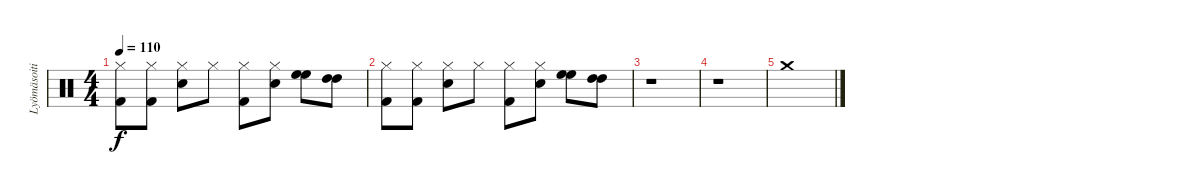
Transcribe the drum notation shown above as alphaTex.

\track ("Lyömäsoitin" "Lyömäsoiti") {instrument percussion}
\staff {score}
\articulation defaults
\ts (4 4)
\tempo 110
\clef neutral
\ks c
("Hi-Hat (closed)" "Kick (hit) 2").8{dy f} ("Hi-Hat (closed)" "Kick (hit) 2").8 ("Hi-Hat (closed)" "Snare (hit) 2").8 "Hi-Hat (closed)".8 ("Hi-Hat (closed)" "Kick (hit) 2").8 ("Hi-Hat (closed)" "Snare (hit) 2").8 ("High Floor Tom (hit)" "High Floor Tom (hit)").8 ("High Tom (hit)" "High Tom (hit)").8 |
("Hi-Hat (closed)" "Kick (hit) 2").8 ("Hi-Hat (closed)" "Kick (hit) 2").8 ("Hi-Hat (closed)" "Snare (hit) 2").8 "Hi-Hat (closed)".8 ("Hi-Hat (closed)" "Kick (hit) 2").8 ("Hi-Hat (closed)" "Snare (hit) 2").8 ("High Floor Tom (hit)" "High Floor Tom (hit)").8 ("High Tom (hit)" "High Tom (hit)").8 |
r.1 |
r.1 |
"Crash medium (hit)".1
